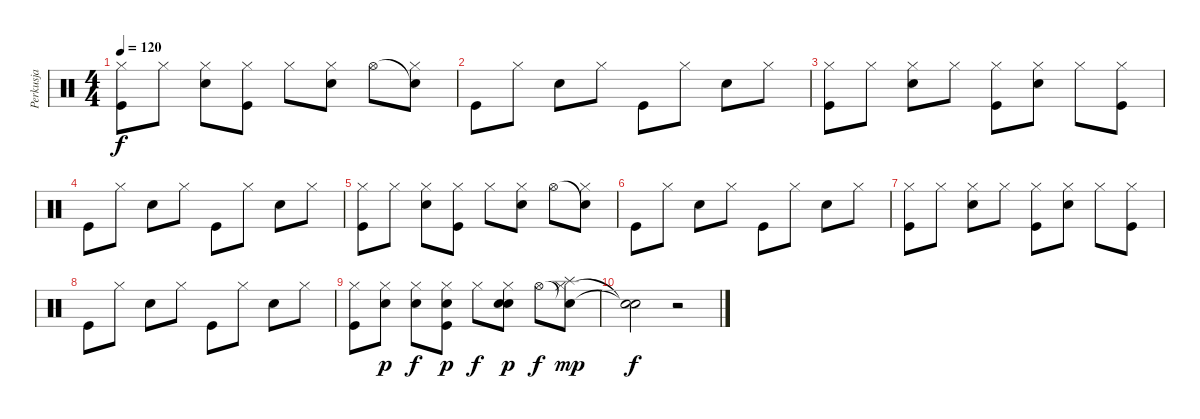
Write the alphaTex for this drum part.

\track ("Perkusja" "Perkusja") {instrument percussion}
\staff {score}
\articulation defaults
\ts (4 4)
\tempo 120
\clef neutral
\ks c
("Hi-Hat (closed)" "Kick (hit)").8{dy f} "Hi-Hat (closed)".8 ("Hi-Hat (closed)" "Snare (hit) 2").8 ("Hi-Hat (closed)" "Kick (hit)").8 "Hi-Hat (closed)".8 ("Hi-Hat (closed)" "Snare (hit) 2").8 "Hi-Hat (open)".8 ("Snare (hit)"{t} "Hi-Hat (closed)").8 |
"Kick (hit)".8 "Hi-Hat (closed)".8 "Snare (hit) 2".8 "Hi-Hat (closed)".8 "Kick (hit)".8 "Hi-Hat (closed)".8 "Snare (hit) 2".8 "Hi-Hat (closed)".8 |
("Hi-Hat (closed)" "Kick (hit)").8 "Hi-Hat (closed)".8 ("Hi-Hat (closed)" "Snare (hit) 2").8 "Hi-Hat (closed)".8 ("Hi-Hat (closed)" "Kick (hit)").8 ("Hi-Hat (closed)" "Snare (hit) 2").8 "Hi-Hat (closed)".8 ("Hi-Hat (closed)" "Kick (hit)").8 |
"Kick (hit)".8 "Hi-Hat (closed)".8 "Snare (hit) 2".8 "Hi-Hat (closed)".8 "Kick (hit)".8 "Hi-Hat (closed)".8 "Snare (hit) 2".8 "Hi-Hat (closed)".8 |
("Hi-Hat (closed)" "Kick (hit)").8 "Hi-Hat (closed)".8 ("Hi-Hat (closed)" "Snare (hit) 2").8 ("Hi-Hat (closed)" "Kick (hit)").8 "Hi-Hat (closed)".8 ("Hi-Hat (closed)" "Snare (hit) 2").8 "Hi-Hat (open)".8 ("Snare (hit)"{t} "Hi-Hat (closed)").8 |
"Kick (hit)".8 "Hi-Hat (closed)".8 "Snare (hit) 2".8 "Hi-Hat (closed)".8 "Kick (hit)".8 "Hi-Hat (closed)".8 "Snare (hit) 2".8 "Hi-Hat (closed)".8 |
("Hi-Hat (closed)" "Kick (hit)").8 "Hi-Hat (closed)".8 ("Hi-Hat (closed)" "Snare (hit) 2").8 "Hi-Hat (closed)".8 ("Hi-Hat (closed)" "Kick (hit)").8 ("Hi-Hat (closed)" "Snare (hit) 2").8 "Hi-Hat (closed)".8 ("Hi-Hat (closed)" "Kick (hit)").8 |
"Kick (hit)".8 "Hi-Hat (closed)".8 "Snare (hit) 2".8 "Hi-Hat (closed)".8 "Kick (hit)".8 "Hi-Hat (closed)".8 "Snare (hit) 2".8 "Hi-Hat (closed)".8 |
("Hi-Hat (closed)" "Kick (hit)").8 ("Hi-Hat (closed)" "Electric Snare (hit)").8{dy p} ("Hi-Hat (closed)" "Snare (hit) 2").8{dy f} ("Hi-Hat (closed)" "Kick (hit)" "Electric Snare (hit)").8{dy p} "Hi-Hat (closed)".8{dy f} ("Hi-Hat (closed)" "Snare (hit) 2" "Electric Snare (hit)").8{dy p} "Hi-Hat (open)".8{dy f} ("Snare (hit)"{t} "Hi-Hat (closed)" "Splash (hit)").8{dy mp} |
("Snare (hit)"{t} "Snare (hit)"{t}).2{dy f} r.2
